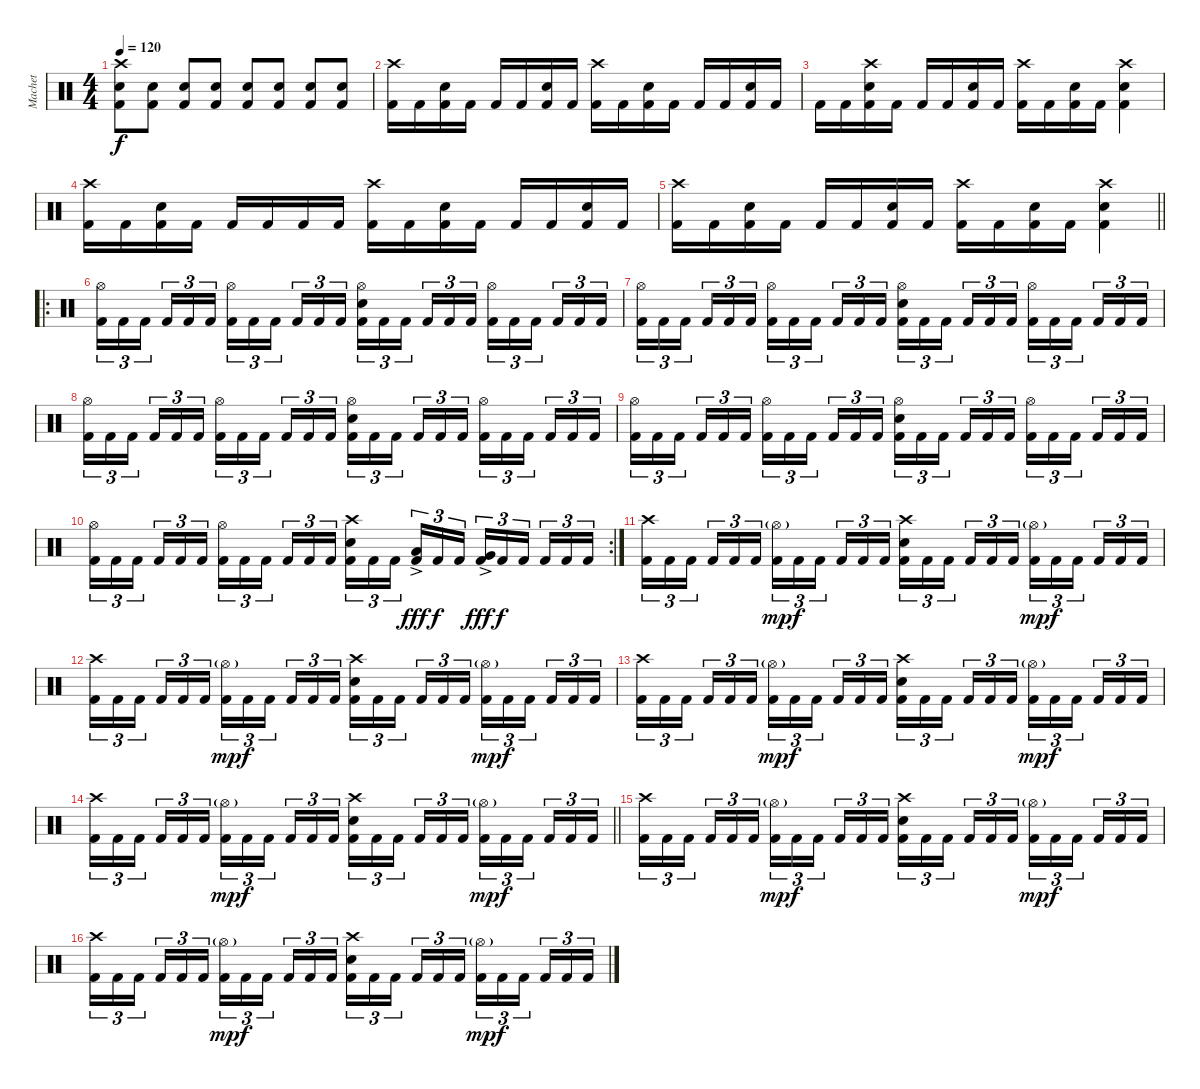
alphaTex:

\track ("Machet" "Machet") {instrument percussion}
\staff {score}
\articulation defaults
\ts (4 4)
\tempo 120
\clef neutral
\ks c
("Crash high (hit)" "Snare (hit) 2" "Kick (hit) 2").8{dy f} ("Snare (hit) 2" "Kick (hit) 2").8 ("Snare (hit) 2" "Kick (hit) 2").8 ("Snare (hit) 2" "Kick (hit) 2").8 ("Snare (hit) 2" "Kick (hit) 2").8 ("Snare (hit) 2" "Kick (hit) 2").8 ("Snare (hit) 2" "Kick (hit) 2").8 ("Snare (hit) 2" "Kick (hit) 2").8 |
("Crash high (hit)" "Kick (hit) 2").16 "Kick (hit) 2".16 ("Snare (hit) 2" "Kick (hit) 2").16 "Kick (hit) 2".16 "Kick (hit) 2".16 "Kick (hit) 2".16 ("Snare (hit) 2" "Kick (hit) 2").16 "Kick (hit) 2".16 ("Crash high (hit)" "Kick (hit) 2").16 "Kick (hit) 2".16 ("Snare (hit) 2" "Kick (hit) 2").16 "Kick (hit) 2".16 "Kick (hit) 2".16 "Kick (hit) 2".16 ("Snare (hit) 2" "Kick (hit) 2").16 "Kick (hit) 2".16 |
"Kick (hit) 2".16 "Kick (hit) 2".16 ("Crash high (hit)" "Snare (hit) 2" "Kick (hit) 2").16 "Kick (hit) 2".16 "Kick (hit) 2".16 "Kick (hit) 2".16 ("Snare (hit) 2" "Kick (hit) 2").16 "Kick (hit) 2".16 ("Crash high (hit)" "Kick (hit) 2").16 "Kick (hit) 2".16 ("Snare (hit) 2" "Kick (hit) 2").16 "Kick (hit) 2".16 ("Crash high (hit)" "Snare (hit) 2" "Kick (hit) 2").4 |
("Crash high (hit)" "Kick (hit) 2").16 "Kick (hit) 2".16 ("Snare (hit) 2" "Kick (hit) 2").16 "Kick (hit) 2".16 "Kick (hit) 2".16 "Kick (hit) 2".16 "Kick (hit) 2".16 "Kick (hit) 2".16 ("Crash high (hit)" "Kick (hit) 2").16 "Kick (hit) 2".16 ("Snare (hit) 2" "Kick (hit) 2").16 "Kick (hit) 2".16 "Kick (hit) 2".16 "Kick (hit) 2".16 ("Snare (hit) 2" "Kick (hit) 2").16 "Kick (hit) 2".16 |
\barLineRight lightlight
("Crash high (hit)" "Kick (hit) 2").16 "Kick (hit) 2".16 ("Snare (hit) 2" "Kick (hit) 2").16 "Kick (hit) 2".16 "Kick (hit) 2".16 "Kick (hit) 2".16 ("Snare (hit) 2" "Kick (hit) 2").16 "Kick (hit) 2".16 ("Crash high (hit)" "Kick (hit) 2").16 "Kick (hit) 2".16 ("Snare (hit) 2" "Kick (hit) 2").16 "Kick (hit) 2".16 ("Crash high (hit)" "Snare (hit) 2" "Kick (hit) 2").4 |
\ro
("Hi-Hat (open)" "Kick (hit) 2").16{tu (3 2)} "Kick (hit) 2".16{tu (3 2)} "Kick (hit) 2".16{tu (3 2) beam splitsecondary} "Kick (hit) 2".16{tu (3 2)} "Kick (hit) 2".16{tu (3 2)} "Kick (hit) 2".16{tu (3 2)} ("Hi-Hat (open)" "Kick (hit) 2").16{tu (3 2)} "Kick (hit) 2".16{tu (3 2)} "Kick (hit) 2".16{tu (3 2) beam splitsecondary} "Kick (hit) 2".16{tu (3 2)} "Kick (hit) 2".16{tu (3 2)} "Kick (hit) 2".16{tu (3 2)} ("Hi-Hat (open)" "Snare (hit) 2" "Kick (hit) 2").16{tu (3 2)} "Kick (hit) 2".16{tu (3 2)} "Kick (hit) 2".16{tu (3 2) beam splitsecondary} "Kick (hit) 2".16{tu (3 2)} "Kick (hit) 2".16{tu (3 2)} "Kick (hit) 2".16{tu (3 2)} ("Hi-Hat (open)" "Kick (hit) 2").16{tu (3 2)} "Kick (hit) 2".16{tu (3 2)} "Kick (hit) 2".16{tu (3 2) beam splitsecondary} "Kick (hit) 2".16{tu (3 2)} "Kick (hit) 2".16{tu (3 2)} "Kick (hit) 2".16{tu (3 2)} |
("Hi-Hat (open)" "Kick (hit) 2").16{tu (3 2)} "Kick (hit) 2".16{tu (3 2)} "Kick (hit) 2".16{tu (3 2) beam splitsecondary} "Kick (hit) 2".16{tu (3 2)} "Kick (hit) 2".16{tu (3 2)} "Kick (hit) 2".16{tu (3 2)} ("Hi-Hat (open)" "Kick (hit) 2").16{tu (3 2)} "Kick (hit) 2".16{tu (3 2)} "Kick (hit) 2".16{tu (3 2) beam splitsecondary} "Kick (hit) 2".16{tu (3 2)} "Kick (hit) 2".16{tu (3 2)} "Kick (hit) 2".16{tu (3 2)} ("Hi-Hat (open)" "Snare (hit) 2" "Kick (hit) 2").16{tu (3 2)} "Kick (hit) 2".16{tu (3 2)} "Kick (hit) 2".16{tu (3 2) beam splitsecondary} "Kick (hit) 2".16{tu (3 2)} "Kick (hit) 2".16{tu (3 2)} "Kick (hit) 2".16{tu (3 2)} ("Hi-Hat (open)" "Kick (hit) 2").16{tu (3 2)} "Kick (hit) 2".16{tu (3 2)} "Kick (hit) 2".16{tu (3 2) beam splitsecondary} "Kick (hit) 2".16{tu (3 2)} "Kick (hit) 2".16{tu (3 2)} "Kick (hit) 2".16{tu (3 2)} |
("Hi-Hat (open)" "Kick (hit) 2").16{tu (3 2)} "Kick (hit) 2".16{tu (3 2)} "Kick (hit) 2".16{tu (3 2) beam splitsecondary} "Kick (hit) 2".16{tu (3 2)} "Kick (hit) 2".16{tu (3 2)} "Kick (hit) 2".16{tu (3 2)} ("Hi-Hat (open)" "Kick (hit) 2").16{tu (3 2)} "Kick (hit) 2".16{tu (3 2)} "Kick (hit) 2".16{tu (3 2) beam splitsecondary} "Kick (hit) 2".16{tu (3 2)} "Kick (hit) 2".16{tu (3 2)} "Kick (hit) 2".16{tu (3 2)} ("Hi-Hat (open)" "Snare (hit) 2" "Kick (hit) 2").16{tu (3 2)} "Kick (hit) 2".16{tu (3 2)} "Kick (hit) 2".16{tu (3 2) beam splitsecondary} "Kick (hit) 2".16{tu (3 2)} "Kick (hit) 2".16{tu (3 2)} "Kick (hit) 2".16{tu (3 2)} ("Hi-Hat (open)" "Kick (hit) 2").16{tu (3 2)} "Kick (hit) 2".16{tu (3 2)} "Kick (hit) 2".16{tu (3 2) beam splitsecondary} "Kick (hit) 2".16{tu (3 2)} "Kick (hit) 2".16{tu (3 2)} "Kick (hit) 2".16{tu (3 2)} |
("Hi-Hat (open)" "Kick (hit) 2").16{tu (3 2)} "Kick (hit) 2".16{tu (3 2)} "Kick (hit) 2".16{tu (3 2) beam splitsecondary} "Kick (hit) 2".16{tu (3 2)} "Kick (hit) 2".16{tu (3 2)} "Kick (hit) 2".16{tu (3 2)} ("Hi-Hat (open)" "Kick (hit) 2").16{tu (3 2)} "Kick (hit) 2".16{tu (3 2)} "Kick (hit) 2".16{tu (3 2) beam splitsecondary} "Kick (hit) 2".16{tu (3 2)} "Kick (hit) 2".16{tu (3 2)} "Kick (hit) 2".16{tu (3 2)} ("Hi-Hat (open)" "Snare (hit) 2" "Kick (hit) 2").16{tu (3 2)} "Kick (hit) 2".16{tu (3 2)} "Kick (hit) 2".16{tu (3 2) beam splitsecondary} "Kick (hit) 2".16{tu (3 2)} "Kick (hit) 2".16{tu (3 2)} "Kick (hit) 2".16{tu (3 2)} ("Hi-Hat (open)" "Kick (hit) 2").16{tu (3 2)} "Kick (hit) 2".16{tu (3 2)} "Kick (hit) 2".16{tu (3 2) beam splitsecondary} "Kick (hit) 2".16{tu (3 2)} "Kick (hit) 2".16{tu (3 2)} "Kick (hit) 2".16{tu (3 2)} |
\rc 2
("Hi-Hat (open)" "Kick (hit) 2").16{tu (3 2)} "Kick (hit) 2".16{tu (3 2)} "Kick (hit) 2".16{tu (3 2) beam splitsecondary} "Kick (hit) 2".16{tu (3 2)} "Kick (hit) 2".16{tu (3 2)} "Kick (hit) 2".16{tu (3 2)} ("Hi-Hat (open)" "Kick (hit) 2").16{tu (3 2)} "Kick (hit) 2".16{tu (3 2)} "Kick (hit) 2".16{tu (3 2) beam splitsecondary} "Kick (hit) 2".16{tu (3 2)} "Kick (hit) 2".16{tu (3 2)} "Kick (hit) 2".16{tu (3 2)} ("Crash high (hit)" "Snare (hit) 2" "Kick (hit) 2").16{tu (3 2)} "Kick (hit) 2".16{tu (3 2)} "Kick (hit) 2".16{tu (3 2) beam splitsecondary} ("Low Tom (hit)"{ac} "Kick (hit) 2").16{tu (3 2) dy fff} "Kick (hit) 2".16{tu (3 2) dy f} "Kick (hit) 2".16{tu (3 2)} ("Very Low Tom (hit)"{ac} "Kick (hit) 2").16{tu (3 2) dy fff} "Kick (hit) 2".16{tu (3 2) dy f} "Kick (hit) 2".16{tu (3 2) beam splitsecondary} "Kick (hit) 2".16{tu (3 2)} "Kick (hit) 2".16{tu (3 2)} "Kick (hit) 2".16{tu (3 2)} |
("Crash high (hit)" "Kick (hit) 2").16{tu (3 2)} "Kick (hit) 2".16{tu (3 2)} "Kick (hit) 2".16{tu (3 2) beam splitsecondary} "Kick (hit) 2".16{tu (3 2)} "Kick (hit) 2".16{tu (3 2)} "Kick (hit) 2".16{tu (3 2)} ("Hi-Hat (open)"{g} "Kick (hit) 2").16{tu (3 2) dy mp} "Kick (hit) 2".16{tu (3 2) dy f} "Kick (hit) 2".16{tu (3 2) beam splitsecondary} "Kick (hit) 2".16{tu (3 2)} "Kick (hit) 2".16{tu (3 2)} "Kick (hit) 2".16{tu (3 2)} ("Crash high (hit)" "Snare (hit) 2" "Kick (hit) 2").16{tu (3 2)} "Kick (hit) 2".16{tu (3 2)} "Kick (hit) 2".16{tu (3 2) beam splitsecondary} "Kick (hit) 2".16{tu (3 2)} "Kick (hit) 2".16{tu (3 2)} "Kick (hit) 2".16{tu (3 2)} ("Hi-Hat (open)"{g} "Kick (hit) 2").16{tu (3 2) dy mp} "Kick (hit) 2".16{tu (3 2) dy f} "Kick (hit) 2".16{tu (3 2) beam splitsecondary} "Kick (hit) 2".16{tu (3 2)} "Kick (hit) 2".16{tu (3 2)} "Kick (hit) 2".16{tu (3 2)} |
("Crash high (hit)" "Kick (hit) 2").16{tu (3 2)} "Kick (hit) 2".16{tu (3 2)} "Kick (hit) 2".16{tu (3 2) beam splitsecondary} "Kick (hit) 2".16{tu (3 2)} "Kick (hit) 2".16{tu (3 2)} "Kick (hit) 2".16{tu (3 2)} ("Hi-Hat (open)"{g} "Kick (hit) 2").16{tu (3 2) dy mp} "Kick (hit) 2".16{tu (3 2) dy f} "Kick (hit) 2".16{tu (3 2) beam splitsecondary} "Kick (hit) 2".16{tu (3 2)} "Kick (hit) 2".16{tu (3 2)} "Kick (hit) 2".16{tu (3 2)} ("Crash high (hit)" "Snare (hit) 2" "Kick (hit) 2").16{tu (3 2)} "Kick (hit) 2".16{tu (3 2)} "Kick (hit) 2".16{tu (3 2) beam splitsecondary} "Kick (hit) 2".16{tu (3 2)} "Kick (hit) 2".16{tu (3 2)} "Kick (hit) 2".16{tu (3 2)} ("Hi-Hat (open)"{g} "Kick (hit) 2").16{tu (3 2) dy mp} "Kick (hit) 2".16{tu (3 2) dy f} "Kick (hit) 2".16{tu (3 2) beam splitsecondary} "Kick (hit) 2".16{tu (3 2)} "Kick (hit) 2".16{tu (3 2)} "Kick (hit) 2".16{tu (3 2)} |
("Crash high (hit)" "Kick (hit) 2").16{tu (3 2)} "Kick (hit) 2".16{tu (3 2)} "Kick (hit) 2".16{tu (3 2) beam splitsecondary} "Kick (hit) 2".16{tu (3 2)} "Kick (hit) 2".16{tu (3 2)} "Kick (hit) 2".16{tu (3 2)} ("Hi-Hat (open)"{g} "Kick (hit) 2").16{tu (3 2) dy mp} "Kick (hit) 2".16{tu (3 2) dy f} "Kick (hit) 2".16{tu (3 2) beam splitsecondary} "Kick (hit) 2".16{tu (3 2)} "Kick (hit) 2".16{tu (3 2)} "Kick (hit) 2".16{tu (3 2)} ("Crash high (hit)" "Snare (hit) 2" "Kick (hit) 2").16{tu (3 2)} "Kick (hit) 2".16{tu (3 2)} "Kick (hit) 2".16{tu (3 2) beam splitsecondary} "Kick (hit) 2".16{tu (3 2)} "Kick (hit) 2".16{tu (3 2)} "Kick (hit) 2".16{tu (3 2)} ("Hi-Hat (open)"{g} "Kick (hit) 2").16{tu (3 2) dy mp} "Kick (hit) 2".16{tu (3 2) dy f} "Kick (hit) 2".16{tu (3 2) beam splitsecondary} "Kick (hit) 2".16{tu (3 2)} "Kick (hit) 2".16{tu (3 2)} "Kick (hit) 2".16{tu (3 2)} |
\barLineRight lightlight
("Crash high (hit)" "Kick (hit) 2").16{tu (3 2)} "Kick (hit) 2".16{tu (3 2)} "Kick (hit) 2".16{tu (3 2) beam splitsecondary} "Kick (hit) 2".16{tu (3 2)} "Kick (hit) 2".16{tu (3 2)} "Kick (hit) 2".16{tu (3 2)} ("Hi-Hat (open)"{g} "Kick (hit) 2").16{tu (3 2) dy mp} "Kick (hit) 2".16{tu (3 2) dy f} "Kick (hit) 2".16{tu (3 2) beam splitsecondary} "Kick (hit) 2".16{tu (3 2)} "Kick (hit) 2".16{tu (3 2)} "Kick (hit) 2".16{tu (3 2)} ("Crash high (hit)" "Snare (hit) 2" "Kick (hit) 2").16{tu (3 2)} "Kick (hit) 2".16{tu (3 2)} "Kick (hit) 2".16{tu (3 2) beam splitsecondary} "Kick (hit) 2".16{tu (3 2)} "Kick (hit) 2".16{tu (3 2)} "Kick (hit) 2".16{tu (3 2)} ("Hi-Hat (open)"{g} "Kick (hit) 2").16{tu (3 2) dy mp} "Kick (hit) 2".16{tu (3 2) dy f} "Kick (hit) 2".16{tu (3 2) beam splitsecondary} "Kick (hit) 2".16{tu (3 2)} "Kick (hit) 2".16{tu (3 2)} "Kick (hit) 2".16{tu (3 2)} |
("Crash high (hit)" "Kick (hit) 2").16{tu (3 2)} "Kick (hit) 2".16{tu (3 2)} "Kick (hit) 2".16{tu (3 2) beam splitsecondary} "Kick (hit) 2".16{tu (3 2)} "Kick (hit) 2".16{tu (3 2)} "Kick (hit) 2".16{tu (3 2)} ("Hi-Hat (open)"{g} "Kick (hit) 2").16{tu (3 2) dy mp} "Kick (hit) 2".16{tu (3 2) dy f} "Kick (hit) 2".16{tu (3 2) beam splitsecondary} "Kick (hit) 2".16{tu (3 2)} "Kick (hit) 2".16{tu (3 2)} "Kick (hit) 2".16{tu (3 2)} ("Crash high (hit)" "Snare (hit) 2" "Kick (hit) 2").16{tu (3 2)} "Kick (hit) 2".16{tu (3 2)} "Kick (hit) 2".16{tu (3 2) beam splitsecondary} "Kick (hit) 2".16{tu (3 2)} "Kick (hit) 2".16{tu (3 2)} "Kick (hit) 2".16{tu (3 2)} ("Hi-Hat (open)"{g} "Kick (hit) 2").16{tu (3 2) dy mp} "Kick (hit) 2".16{tu (3 2) dy f} "Kick (hit) 2".16{tu (3 2) beam splitsecondary} "Kick (hit) 2".16{tu (3 2)} "Kick (hit) 2".16{tu (3 2)} "Kick (hit) 2".16{tu (3 2)} |
("Crash high (hit)" "Kick (hit) 2").16{tu (3 2)} "Kick (hit) 2".16{tu (3 2)} "Kick (hit) 2".16{tu (3 2) beam splitsecondary} "Kick (hit) 2".16{tu (3 2)} "Kick (hit) 2".16{tu (3 2)} "Kick (hit) 2".16{tu (3 2)} ("Hi-Hat (open)"{g} "Kick (hit) 2").16{tu (3 2) dy mp} "Kick (hit) 2".16{tu (3 2) dy f} "Kick (hit) 2".16{tu (3 2) beam splitsecondary} "Kick (hit) 2".16{tu (3 2)} "Kick (hit) 2".16{tu (3 2)} "Kick (hit) 2".16{tu (3 2)} ("Crash high (hit)" "Snare (hit) 2" "Kick (hit) 2").16{tu (3 2)} "Kick (hit) 2".16{tu (3 2)} "Kick (hit) 2".16{tu (3 2) beam splitsecondary} "Kick (hit) 2".16{tu (3 2)} "Kick (hit) 2".16{tu (3 2)} "Kick (hit) 2".16{tu (3 2)} ("Hi-Hat (open)"{g} "Kick (hit) 2").16{tu (3 2) dy mp} "Kick (hit) 2".16{tu (3 2) dy f} "Kick (hit) 2".16{tu (3 2) beam splitsecondary} "Kick (hit) 2".16{tu (3 2)} "Kick (hit) 2".16{tu (3 2)} "Kick (hit) 2".16{tu (3 2)}
